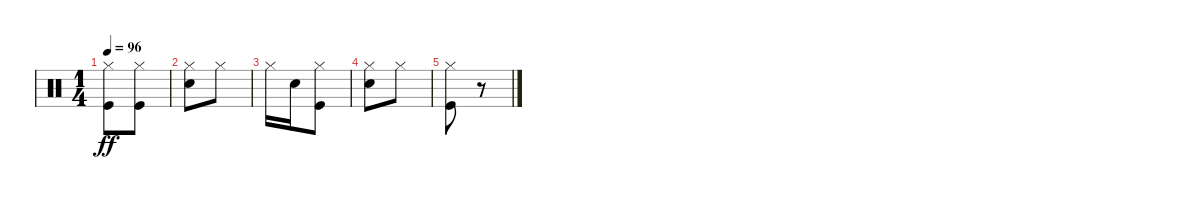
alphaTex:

\track "" {instrument percussion}
\staff {score}
\articulation defaults
\ts (1 4)
\tempo 96
\clef neutral
\ks c
("Kick (hit)" "Hi-Hat (closed)").8{dy ff} ("Kick (hit)" "Hi-Hat (closed)").8 |
("Snare (hit) 2" "Hi-Hat (closed)").8 "Hi-Hat (closed)".8 |
"Hi-Hat (closed)".16 "Snare (hit) 2".16 ("Kick (hit)" "Hi-Hat (closed)").8 |
("Snare (hit) 2" "Hi-Hat (closed)").8 "Hi-Hat (closed)".8 |
("Kick (hit)" "Hi-Hat (closed)").8 r.8
